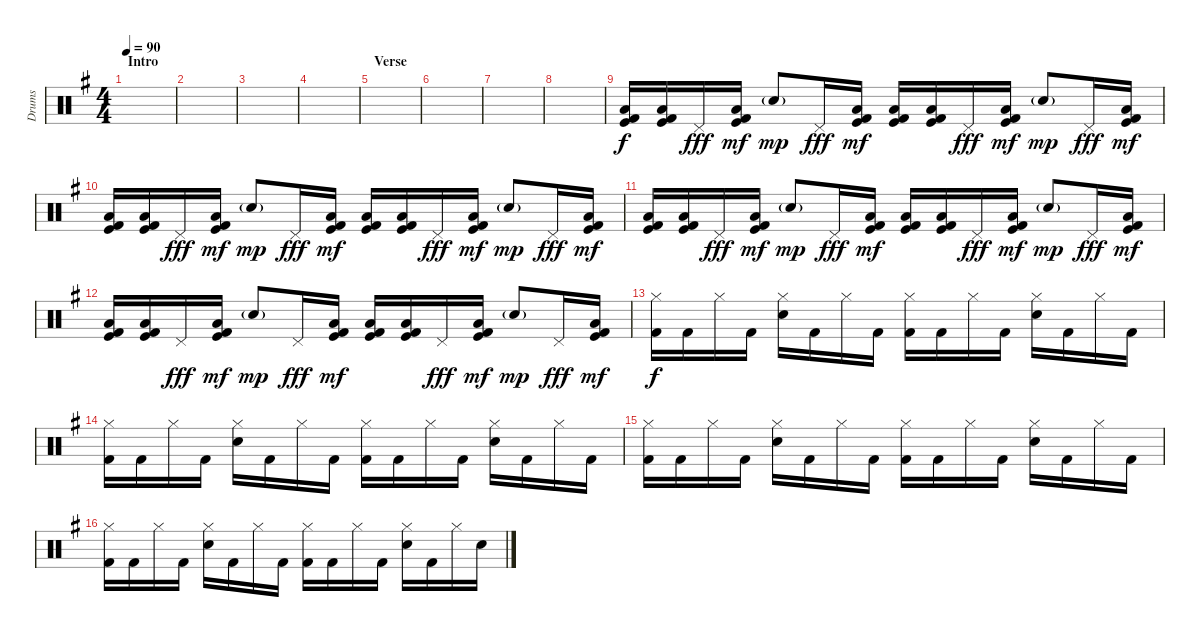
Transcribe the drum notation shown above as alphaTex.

\track ("Drums" "Drums") {instrument percussion}
\staff {score}
\articulation defaults
\ts (4 4)
\section ("" "Intro")
\tempo 90
\clef neutral
\ks g
|
|
|
|
\section ("" "Verse")
|
|
|
|
("Low Floor Tom (hit)" "Kick (hit)" "Kick (hit) 2").16{volume 13} ("Low Floor Tom (hit)" "Kick (hit)" "Kick (hit) 2").16 "Pedal Hi-Hat (hit)".16{dy fff} ("Low Floor Tom (hit)" "Kick (hit)" "Kick (hit) 2").16{dy mf} "Snare (hit) 2"{g}.8{dy mp} "Pedal Hi-Hat (hit)".16{dy fff} ("Low Floor Tom (hit)" "Kick (hit)" "Kick (hit) 2").16{dy mf} ("Low Floor Tom (hit)" "Kick (hit)" "Kick (hit) 2").16 ("Low Floor Tom (hit)" "Kick (hit)" "Kick (hit) 2").16 "Pedal Hi-Hat (hit)".16{dy fff} ("Low Floor Tom (hit)" "Kick (hit)" "Kick (hit) 2").16{dy mf} "Snare (hit) 2"{g}.8{dy mp} "Pedal Hi-Hat (hit)".16{dy fff} ("Low Floor Tom (hit)" "Kick (hit)" "Kick (hit) 2").16{dy mf} |
("Low Floor Tom (hit)" "Kick (hit)" "Kick (hit) 2").16{volume 10} ("Low Floor Tom (hit)" "Kick (hit)" "Kick (hit) 2").16 "Pedal Hi-Hat (hit)".16{dy fff} ("Low Floor Tom (hit)" "Kick (hit)" "Kick (hit) 2").16{dy mf} "Snare (hit) 2"{g}.8{dy mp} "Pedal Hi-Hat (hit)".16{dy fff} ("Low Floor Tom (hit)" "Kick (hit)" "Kick (hit) 2").16{dy mf} ("Low Floor Tom (hit)" "Kick (hit)" "Kick (hit) 2").16 ("Low Floor Tom (hit)" "Kick (hit)" "Kick (hit) 2").16 "Pedal Hi-Hat (hit)".16{dy fff} ("Low Floor Tom (hit)" "Kick (hit)" "Kick (hit) 2").16{dy mf} "Snare (hit) 2"{g}.8{dy mp} "Pedal Hi-Hat (hit)".16{dy fff} ("Low Floor Tom (hit)" "Kick (hit)" "Kick (hit) 2").16{dy mf} |
("Low Floor Tom (hit)" "Kick (hit)" "Kick (hit) 2").16{volume 10} ("Low Floor Tom (hit)" "Kick (hit)" "Kick (hit) 2").16 "Pedal Hi-Hat (hit)".16{dy fff} ("Low Floor Tom (hit)" "Kick (hit)" "Kick (hit) 2").16{dy mf} "Snare (hit) 2"{g}.8{dy mp} "Pedal Hi-Hat (hit)".16{dy fff} ("Low Floor Tom (hit)" "Kick (hit)" "Kick (hit) 2").16{dy mf} ("Low Floor Tom (hit)" "Kick (hit)" "Kick (hit) 2").16 ("Low Floor Tom (hit)" "Kick (hit)" "Kick (hit) 2").16 "Pedal Hi-Hat (hit)".16{dy fff} ("Low Floor Tom (hit)" "Kick (hit)" "Kick (hit) 2").16{dy mf} "Snare (hit) 2"{g}.8{dy mp} "Pedal Hi-Hat (hit)".16{dy fff} ("Low Floor Tom (hit)" "Kick (hit)" "Kick (hit) 2").16{dy mf} |
("Low Floor Tom (hit)" "Kick (hit)" "Kick (hit) 2").16{volume 10} ("Low Floor Tom (hit)" "Kick (hit)" "Kick (hit) 2").16 "Pedal Hi-Hat (hit)".16{dy fff} ("Low Floor Tom (hit)" "Kick (hit)" "Kick (hit) 2").16{dy mf} "Snare (hit) 2"{g}.8{dy mp} "Pedal Hi-Hat (hit)".16{dy fff} ("Low Floor Tom (hit)" "Kick (hit)" "Kick (hit) 2").16{dy mf} ("Low Floor Tom (hit)" "Kick (hit)" "Kick (hit) 2").16 ("Low Floor Tom (hit)" "Kick (hit)" "Kick (hit) 2").16 "Pedal Hi-Hat (hit)".16{dy fff} ("Low Floor Tom (hit)" "Kick (hit)" "Kick (hit) 2").16{dy mf} "Snare (hit) 2"{g}.8{dy mp} "Pedal Hi-Hat (hit)".16{dy fff} ("Low Floor Tom (hit)" "Kick (hit)" "Kick (hit) 2").16{dy mf} |
("Hi-Hat (closed)" "Kick (hit) 2").16{dy f volume 13} "Kick (hit) 2".16 "Hi-Hat (closed)".16 "Kick (hit) 2".16 ("Hi-Hat (closed)" "Electric Snare (hit)").16 "Kick (hit) 2".16 "Hi-Hat (closed)".16 "Kick (hit) 2".16 ("Hi-Hat (closed)" "Kick (hit) 2").16 "Kick (hit) 2".16 "Hi-Hat (closed)".16 "Kick (hit) 2".16 ("Hi-Hat (closed)" "Electric Snare (hit)").16 "Kick (hit) 2".16 "Hi-Hat (closed)".16 "Kick (hit) 2".16 |
("Hi-Hat (closed)" "Kick (hit) 2").16 "Kick (hit) 2".16 "Hi-Hat (closed)".16 "Kick (hit) 2".16 ("Hi-Hat (closed)" "Electric Snare (hit)").16 "Kick (hit) 2".16 "Hi-Hat (closed)".16 "Kick (hit) 2".16 ("Hi-Hat (closed)" "Kick (hit) 2").16 "Kick (hit) 2".16 "Hi-Hat (closed)".16 "Kick (hit) 2".16 ("Hi-Hat (closed)" "Electric Snare (hit)").16 "Kick (hit) 2".16 "Hi-Hat (closed)".16 "Kick (hit) 2".16 |
("Hi-Hat (closed)" "Kick (hit) 2").16 "Kick (hit) 2".16 "Hi-Hat (closed)".16 "Kick (hit) 2".16 ("Hi-Hat (closed)" "Electric Snare (hit)").16 "Kick (hit) 2".16 "Hi-Hat (closed)".16 "Kick (hit) 2".16 ("Hi-Hat (closed)" "Kick (hit) 2").16 "Kick (hit) 2".16 "Hi-Hat (closed)".16 "Kick (hit) 2".16 ("Hi-Hat (closed)" "Electric Snare (hit)").16 "Kick (hit) 2".16 "Hi-Hat (closed)".16 "Kick (hit) 2".16 |
("Hi-Hat (closed)" "Kick (hit) 2").16 "Kick (hit) 2".16 "Hi-Hat (closed)".16 "Kick (hit) 2".16 ("Hi-Hat (closed)" "Electric Snare (hit)").16 "Kick (hit) 2".16 "Hi-Hat (closed)".16 "Kick (hit) 2".16 ("Hi-Hat (closed)" "Kick (hit) 2").16 "Kick (hit) 2".16 "Hi-Hat (closed)".16 "Kick (hit) 2".16 ("Hi-Hat (closed)" "Electric Snare (hit)").16 "Kick (hit) 2".16 "Hi-Hat (closed)".16 "Electric Snare (hit)".16
